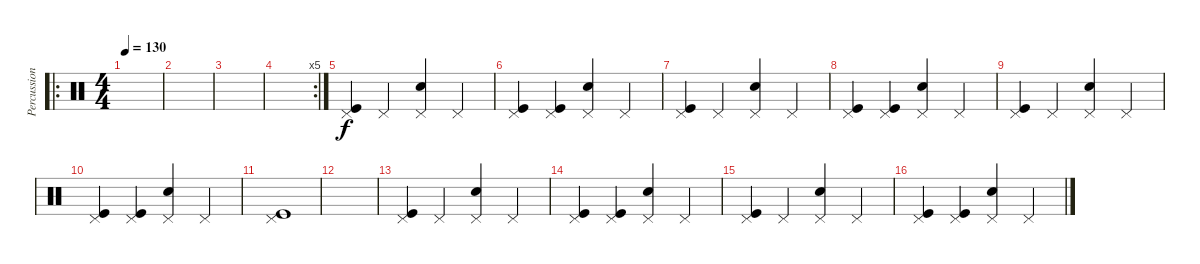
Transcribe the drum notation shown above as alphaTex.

\track ("Percussion" "Percussion") {instrument percussion}
\staff {score}
\articulation defaults
\ro
\ts (4 4)
\tempo 130
\clef neutral
\ks c
|
|
|
\rc 5
|
("Pedal Hi-Hat (hit)" "Kick (hit)").4 "Pedal Hi-Hat (hit)".4 ("Pedal Hi-Hat (hit)" "Snare (hit) 2").4 "Pedal Hi-Hat (hit)".4 |
("Pedal Hi-Hat (hit)" "Kick (hit)").4 ("Pedal Hi-Hat (hit)" "Kick (hit)").4 ("Pedal Hi-Hat (hit)" "Snare (hit) 2").4 "Pedal Hi-Hat (hit)".4 |
("Pedal Hi-Hat (hit)" "Kick (hit)").4 "Pedal Hi-Hat (hit)".4 ("Pedal Hi-Hat (hit)" "Snare (hit) 2").4 "Pedal Hi-Hat (hit)".4 |
("Pedal Hi-Hat (hit)" "Kick (hit)").4 ("Pedal Hi-Hat (hit)" "Kick (hit)").4 ("Pedal Hi-Hat (hit)" "Snare (hit) 2").4 "Pedal Hi-Hat (hit)".4 |
("Pedal Hi-Hat (hit)" "Kick (hit)").4 "Pedal Hi-Hat (hit)".4 ("Pedal Hi-Hat (hit)" "Snare (hit) 2").4 "Pedal Hi-Hat (hit)".4 |
("Pedal Hi-Hat (hit)" "Kick (hit)").4 ("Pedal Hi-Hat (hit)" "Kick (hit)").4 ("Pedal Hi-Hat (hit)" "Snare (hit) 2").4 "Pedal Hi-Hat (hit)".4 |
("Pedal Hi-Hat (hit)" "Kick (hit)").1 |
|
("Pedal Hi-Hat (hit)" "Kick (hit)").4 "Pedal Hi-Hat (hit)".4 ("Pedal Hi-Hat (hit)" "Snare (hit) 2").4 "Pedal Hi-Hat (hit)".4 |
("Pedal Hi-Hat (hit)" "Kick (hit)").4 ("Pedal Hi-Hat (hit)" "Kick (hit)").4 ("Pedal Hi-Hat (hit)" "Snare (hit) 2").4 "Pedal Hi-Hat (hit)".4 |
("Pedal Hi-Hat (hit)" "Kick (hit)").4 "Pedal Hi-Hat (hit)".4 ("Pedal Hi-Hat (hit)" "Snare (hit) 2").4 "Pedal Hi-Hat (hit)".4 |
("Pedal Hi-Hat (hit)" "Kick (hit)").4 ("Pedal Hi-Hat (hit)" "Kick (hit)").4 ("Pedal Hi-Hat (hit)" "Snare (hit) 2").4 "Pedal Hi-Hat (hit)".4
